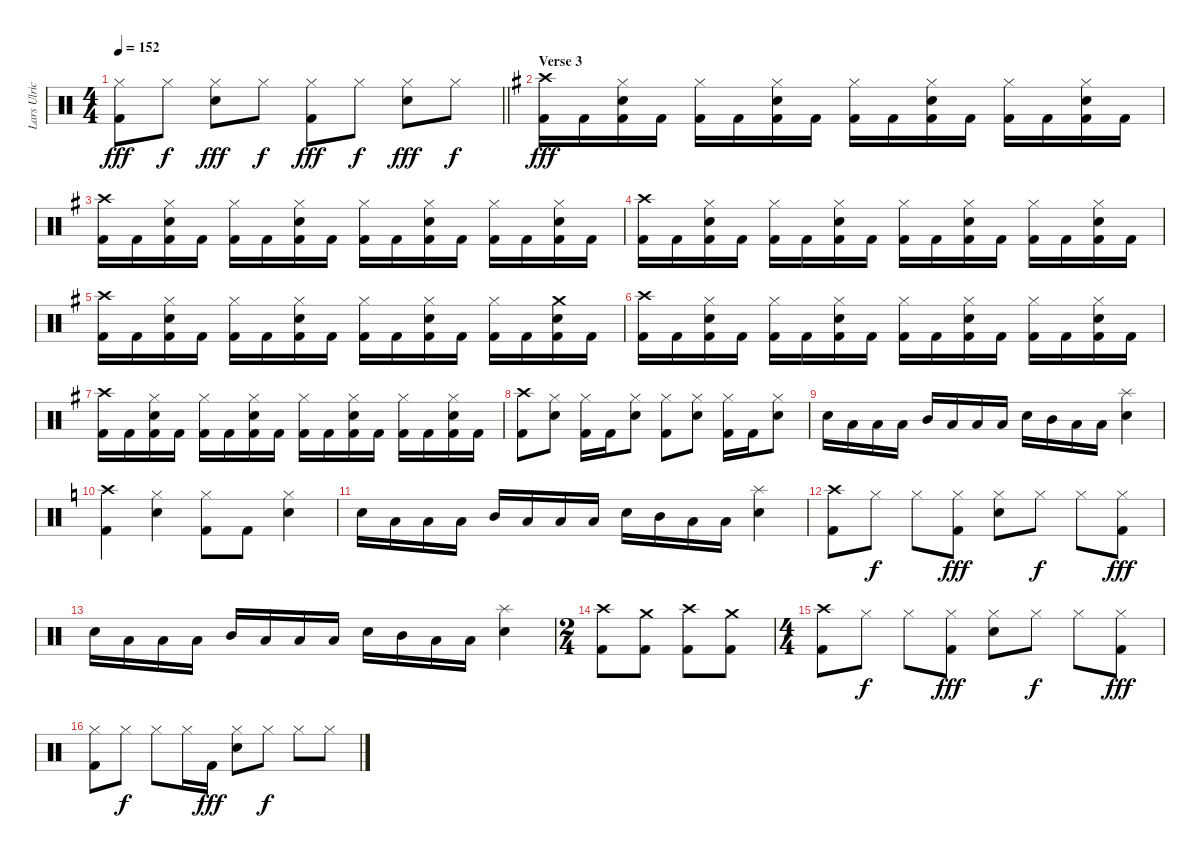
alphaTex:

\track ("Lars Ulrich" "Lars Ulric") {instrument percussion}
\staff {score}
\articulation defaults
\ts (4 4)
\tempo 152
\clef neutral
\barLineRight lightlight
\ks c
("Hi-Hat (closed)" "Kick (hit) 2").8{dy fff} "Hi-Hat (closed)".8{dy f} ("Hi-Hat (closed)" "Snare (hit) 2").8{dy fff} "Hi-Hat (closed)".8{dy f} ("Hi-Hat (closed)" "Kick (hit) 2").8{dy fff} "Hi-Hat (closed)".8{dy f} ("Hi-Hat (closed)" "Snare (hit) 2").8{dy fff} "Hi-Hat (closed)".8{dy f} |
\section ("" "Verse 3")
\ks g
("Crash high (hit)" "Kick (hit) 2").16{dy fff} "Kick (hit) 2".16 ("Hi-Hat (closed)" "Snare (hit) 2" "Kick (hit) 2").16 "Kick (hit) 2".16 ("Hi-Hat (closed)" "Kick (hit) 2").16 "Kick (hit) 2".16 ("Hi-Hat (closed)" "Snare (hit) 2" "Kick (hit) 2").16 "Kick (hit) 2".16 ("Hi-Hat (closed)" "Kick (hit) 2").16 "Kick (hit) 2".16 ("Hi-Hat (closed)" "Snare (hit) 2" "Kick (hit) 2").16 "Kick (hit) 2".16 ("Hi-Hat (closed)" "Kick (hit) 2").16 "Kick (hit) 2".16 ("Hi-Hat (closed)" "Snare (hit) 2" "Kick (hit) 2").16 "Kick (hit) 2".16 |
("Crash high (hit)" "Kick (hit) 2").16 "Kick (hit) 2".16 ("Hi-Hat (closed)" "Snare (hit) 2" "Kick (hit) 2").16 "Kick (hit) 2".16 ("Hi-Hat (closed)" "Kick (hit) 2").16 "Kick (hit) 2".16 ("Hi-Hat (closed)" "Snare (hit) 2" "Kick (hit) 2").16 "Kick (hit) 2".16 ("Hi-Hat (closed)" "Kick (hit) 2").16 "Kick (hit) 2".16 ("Hi-Hat (closed)" "Snare (hit) 2" "Kick (hit) 2").16 "Kick (hit) 2".16 ("Hi-Hat (closed)" "Kick (hit) 2").16 "Kick (hit) 2".16 ("Hi-Hat (closed)" "Snare (hit) 2" "Kick (hit) 2").16 "Kick (hit) 2".16 |
("Crash high (hit)" "Kick (hit) 2").16 "Kick (hit) 2".16 ("Hi-Hat (closed)" "Snare (hit) 2" "Kick (hit) 2").16 "Kick (hit) 2".16 ("Hi-Hat (closed)" "Kick (hit) 2").16 "Kick (hit) 2".16 ("Hi-Hat (closed)" "Snare (hit) 2" "Kick (hit) 2").16 "Kick (hit) 2".16 ("Hi-Hat (closed)" "Kick (hit) 2").16 "Kick (hit) 2".16 ("Hi-Hat (closed)" "Snare (hit) 2" "Kick (hit) 2").16 "Kick (hit) 2".16 ("Hi-Hat (closed)" "Kick (hit) 2").16 "Kick (hit) 2".16 ("Hi-Hat (closed)" "Snare (hit) 2" "Kick (hit) 2").16 "Kick (hit) 2".16 |
("Crash high (hit)" "Kick (hit) 2").16 "Kick (hit) 2".16 ("Hi-Hat (closed)" "Snare (hit) 2" "Kick (hit) 2").16 "Kick (hit) 2".16 ("Hi-Hat (closed)" "Kick (hit) 2").16 "Kick (hit) 2".16 ("Hi-Hat (closed)" "Snare (hit) 2" "Kick (hit) 2").16 "Kick (hit) 2".16 ("Hi-Hat (closed)" "Kick (hit) 2").16 "Kick (hit) 2".16 ("Hi-Hat (closed)" "Snare (hit) 2" "Kick (hit) 2").16 "Kick (hit) 2".16 ("Hi-Hat (closed)" "Kick (hit) 2").16 "Kick (hit) 2".16 ("Crash medium (hit)" "Snare (hit) 2" "Kick (hit) 2").16 "Kick (hit) 2".16 |
("Crash high (hit)" "Kick (hit) 2").16 "Kick (hit) 2".16 ("Hi-Hat (closed)" "Snare (hit) 2" "Kick (hit) 2").16 "Kick (hit) 2".16 ("Hi-Hat (closed)" "Kick (hit) 2").16 "Kick (hit) 2".16 ("Hi-Hat (closed)" "Snare (hit) 2" "Kick (hit) 2").16 "Kick (hit) 2".16 ("Hi-Hat (closed)" "Kick (hit) 2").16 "Kick (hit) 2".16 ("Hi-Hat (closed)" "Snare (hit) 2" "Kick (hit) 2").16 "Kick (hit) 2".16 ("Hi-Hat (closed)" "Kick (hit) 2").16 "Kick (hit) 2".16 ("Hi-Hat (closed)" "Snare (hit) 2" "Kick (hit) 2").16 "Kick (hit) 2".16 |
("Crash high (hit)" "Kick (hit) 2").16 "Kick (hit) 2".16 ("Hi-Hat (closed)" "Snare (hit) 2" "Kick (hit) 2").16 "Kick (hit) 2".16 ("Hi-Hat (closed)" "Kick (hit) 2").16 "Kick (hit) 2".16 ("Hi-Hat (closed)" "Snare (hit) 2" "Kick (hit) 2").16 "Kick (hit) 2".16 ("Hi-Hat (closed)" "Kick (hit) 2").16 "Kick (hit) 2".16 ("Hi-Hat (closed)" "Snare (hit) 2" "Kick (hit) 2").16 "Kick (hit) 2".16 ("Hi-Hat (closed)" "Kick (hit) 2").16 "Kick (hit) 2".16 ("Hi-Hat (closed)" "Snare (hit) 2" "Kick (hit) 2").16 "Kick (hit) 2".16 |
("Crash high (hit)" "Kick (hit) 2").8 ("Hi-Hat (closed)" "Snare (hit) 2").8 ("Hi-Hat (closed)" "Kick (hit) 2").16 "Kick (hit) 2".16 ("Hi-Hat (closed)" "Snare (hit) 2").8 ("Hi-Hat (closed)" "Kick (hit) 2").8 ("Hi-Hat (closed)" "Snare (hit) 2").8 ("Hi-Hat (closed)" "Kick (hit) 2").16 "Kick (hit) 2".16 ("Hi-Hat (closed)" "Snare (hit) 2").8 |
"Snare (hit) 2".16 "Low Tom (hit)".16 "Low Tom (hit)".16 "Low Tom (hit)".16 "Mid Tom (hit)".16 "Low Tom (hit)".16 "Low Tom (hit)".16 "Low Tom (hit)".16 "Snare (hit) 2".16 "Mid Tom (hit)".16 "Low Tom (hit)".16 "Low Tom (hit)".16 ("Splash (hit)" "Snare (hit) 2").4 |
\ks c
("Crash high (hit)" "Kick (hit) 2").4 ("Hi-Hat (closed)" "Snare (hit) 2").4 ("Hi-Hat (closed)" "Kick (hit) 2").8 "Kick (hit) 2".8 ("Hi-Hat (closed)" "Snare (hit) 2").4 |
"Snare (hit) 2".16 "Low Tom (hit)".16 "Low Tom (hit)".16 "Low Tom (hit)".16 "Mid Tom (hit)".16 "Low Tom (hit)".16 "Low Tom (hit)".16 "Low Tom (hit)".16 "Snare (hit) 2".16 "Mid Tom (hit)".16 "Low Tom (hit)".16 "Low Tom (hit)".16 ("Splash (hit)" "Snare (hit) 2").4 |
("Crash high (hit)" "Kick (hit) 2").8 "Hi-Hat (closed)".8{dy f} "Hi-Hat (closed)".8 ("Hi-Hat (closed)" "Kick (hit) 2").8{dy fff} ("Hi-Hat (closed)" "Snare (hit) 2").8 "Hi-Hat (closed)".8{dy f} "Hi-Hat (closed)".8 ("Hi-Hat (closed)" "Kick (hit) 2").8{dy fff} |
"Snare (hit) 2".16 "Low Tom (hit)".16 "Low Tom (hit)".16 "Low Tom (hit)".16 "Mid Tom (hit)".16 "Low Tom (hit)".16 "Low Tom (hit)".16 "Low Tom (hit)".16 "Snare (hit) 2".16 "Mid Tom (hit)".16 "Low Tom (hit)".16 "Low Tom (hit)".16 ("Splash (hit)" "Snare (hit) 2").4 |
\ts (2 4)
("Crash high (hit)" "Kick (hit) 2").8 ("Crash medium (hit)" "Kick (hit) 2").8 ("Crash high (hit)" "Kick (hit) 2").8 ("Crash medium (hit)" "Kick (hit) 2").8 |
\ts (4 4)
("Crash high (hit)" "Kick (hit) 2").8 "Hi-Hat (closed)".8{dy f} "Hi-Hat (closed)".8 ("Hi-Hat (closed)" "Kick (hit) 2").8{dy fff} ("Hi-Hat (closed)" "Snare (hit) 2").8 "Hi-Hat (closed)".8{dy f} "Hi-Hat (closed)".8 ("Hi-Hat (closed)" "Kick (hit) 2").8{dy fff} |
("Hi-Hat (closed)" "Kick (hit) 2").8 "Hi-Hat (closed)".8{dy f} "Hi-Hat (closed)".8 "Hi-Hat (closed)".16 "Kick (hit) 2".16{dy fff} ("Hi-Hat (closed)" "Snare (hit) 2").8 "Hi-Hat (closed)".8{dy f} "Hi-Hat (closed)".8 "Hi-Hat (closed)".8
